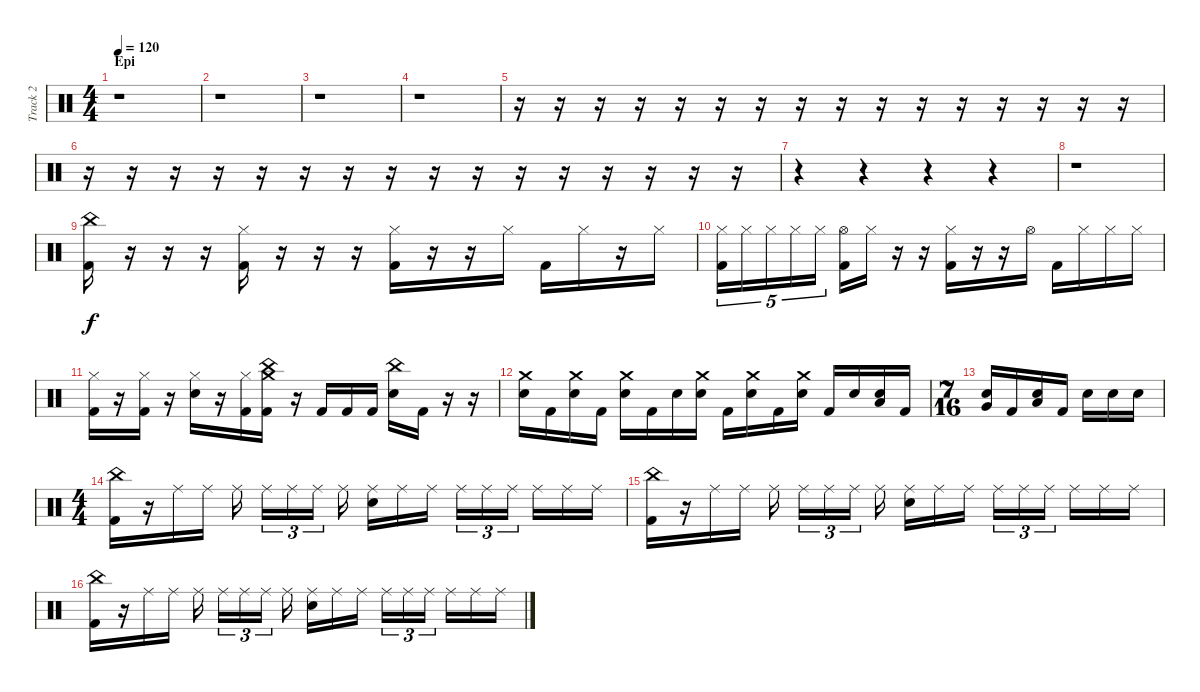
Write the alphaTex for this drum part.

\track ("Track 2" "Track 2") {instrument percussion}
\staff {score}
\articulation defaults
\ts (4 4)
\section ("" "Epi")
\tempo 120
\clef neutral
\ks c
r.1{dy f} |
r.1 |
r.1 |
r.1 |
r.16 r.16 r.16 r.16 r.16 r.16 r.16 r.16 r.16 r.16 r.16 r.16 r.16 r.16 r.16 r.16 |
r.16 r.16 r.16 r.16 r.16 r.16 r.16 r.16 r.16 r.16 r.16 r.16 r.16 r.16 r.16 r.16 |
r.4 r.4 r.4 r.4 |
r.1 |
("China (hit)" "Kick (hit) 2").16 r.16 r.16 r.16 ("Hi-Hat (closed)" "Kick (hit) 2").16 r.16 r.16 r.16 ("Hi-Hat (closed)" "Kick (hit) 2").16 r.16 r.16 "Hi-Hat (closed)".16 "Kick (hit) 2".16 "Hi-Hat (closed)".16 r.16 "Hi-Hat (closed)".16 |
("Hi-Hat (closed)" "Kick (hit) 2").16{tu (5 4)} "Hi-Hat (closed)".16{tu (5 4)} "Hi-Hat (closed)".16{tu (5 4)} "Hi-Hat (closed)".16{tu (5 4)} "Hi-Hat (closed)".16{tu (5 4)} ("Hi-Hat (open)" "Kick (hit) 2").16 "Hi-Hat (closed)".16 r.16 r.16 ("Hi-Hat (closed)" "Kick (hit) 2").16 r.16 r.16 "Hi-Hat (open)".16 "Kick (hit) 2".16 "Hi-Hat (closed)".16 "Hi-Hat (closed)".16 "Hi-Hat (closed)".16 |
("Hi-Hat (closed)" "Kick (hit) 2").16 r.16 ("Hi-Hat (closed)" "Kick (hit) 2").16 r.16 ("Hi-Hat (closed)" "Electric Snare (hit)").16 r.16 ("Hi-Hat (closed)" "Kick (hit) 2").16 ("China (hit)" "Crash medium (hit)" "Kick (hit) 2").16 r.16 "Kick (hit) 2".16 "Kick (hit) 2".16 "Kick (hit) 2".16 ("China (hit)" "Electric Snare (hit)").16 "Kick (hit) 2".16 r.16 r.16 |
("Crash medium (hit)" "Electric Snare (hit)").16 "Kick (hit) 2".16 ("Crash medium (hit)" "Electric Snare (hit)").16 "Kick (hit) 2".16 ("Crash medium (hit)" "Electric Snare (hit)").16 "Kick (hit) 2".16 "Electric Snare (hit)".16 ("Crash medium (hit)" "Electric Snare (hit)").16 "Kick (hit) 2".16 ("Crash medium (hit)" "Electric Snare (hit)").16 "Kick (hit) 2".16 ("Crash medium (hit)" "Electric Snare (hit)").16 "Kick (hit) 2".16 "Electric Snare (hit)".16 ("Electric Snare (hit)" "Low Tom (hit)").16 "Kick (hit) 2".16 |
\ts (7 16)
("Electric Snare (hit)" "Very Low Tom (hit)").16 "Kick (hit) 2".16 ("Electric Snare (hit)" "Low Floor Tom (hit)").16 "Kick (hit) 2".16 "Electric Snare (hit)".16 "Electric Snare (hit)".16 "Electric Snare (hit)".16 |
\ts (4 4)
("China (hit)" "Kick (hit) 2").16 r.16 "Ride (middle)".16 "Ride (middle)".16 "Ride (middle)".16 "Ride (middle)".16{tu (3 2)} "Ride (middle)".16{tu (3 2)} "Ride (middle)".16{tu (3 2)} "Ride (middle)".16 ("Ride (middle)" "Electric Snare (hit)").16 "Ride (middle)".16 "Ride (middle)".16 "Ride (middle)".16{tu (3 2)} "Ride (middle)".16{tu (3 2)} "Ride (middle)".16{tu (3 2)} "Ride (middle)".16 "Ride (middle)".16 "Ride (middle)".16 |
("China (hit)" "Kick (hit) 2").16 r.16 "Ride (middle)".16 "Ride (middle)".16 "Ride (middle)".16 "Ride (middle)".16{tu (3 2)} "Ride (middle)".16{tu (3 2)} "Ride (middle)".16{tu (3 2)} "Ride (middle)".16 ("Ride (middle)" "Electric Snare (hit)").16 "Ride (middle)".16 "Ride (middle)".16 "Ride (middle)".16{tu (3 2)} "Ride (middle)".16{tu (3 2)} "Ride (middle)".16{tu (3 2)} "Ride (middle)".16 "Ride (middle)".16 "Ride (middle)".16 |
("China (hit)" "Kick (hit) 2").16 r.16 "Ride (middle)".16 "Ride (middle)".16 "Ride (middle)".16 "Ride (middle)".16{tu (3 2)} "Ride (middle)".16{tu (3 2)} "Ride (middle)".16{tu (3 2)} "Ride (middle)".16 ("Ride (middle)" "Electric Snare (hit)").16 "Ride (middle)".16 "Ride (middle)".16 "Ride (middle)".16{tu (3 2)} "Ride (middle)".16{tu (3 2)} "Ride (middle)".16{tu (3 2)} "Ride (middle)".16 "Ride (middle)".16 "Ride (middle)".16
